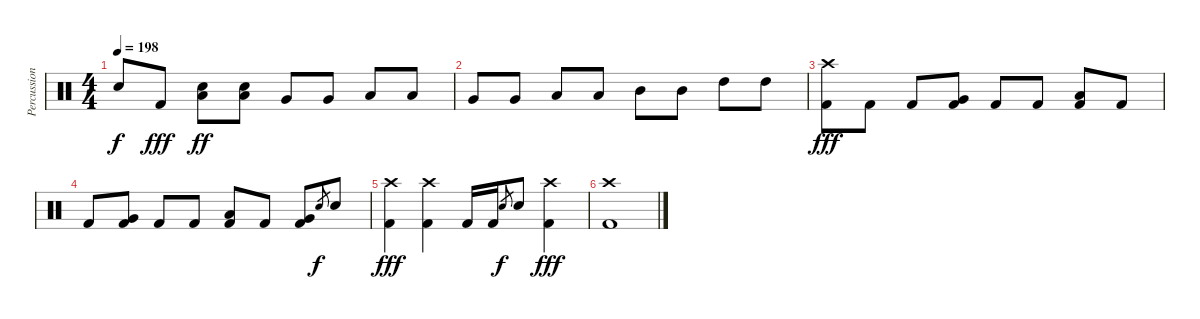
\track ("Percussion" "Percussion") {instrument percussion}
\staff {score}
\articulation defaults
\ts (4 4)
\tempo 198
\clef neutral
\ks c "Snare (hit) 2".8{dy f} "Kick (hit) 2".8{dy fff}
("Low Floor Tom (hit)" "Snare (hit) 2").8{dy ff} ("Low Floor Tom (hit)" "Snare (hit) 2").8 "Very Low Tom (hit)".8 "Very Low Tom (hit)".8 "Low Tom (hit)".8 "Low Tom (hit)".8 |
"Very Low Tom (hit)".8 "Very Low Tom (hit)".8 "Low Tom (hit)".8 "Low Tom (hit)".8 "Mid Tom (hit)".8 "Mid Tom (hit)".8 "High Tom (hit)".8 "High Tom (hit)".8 |
("Crash high (hit)" "Kick (hit) 2").8{dy fff} "Kick (hit) 2".8 "Kick (hit) 2".8 ("Very Low Tom (hit)" "Kick (hit) 2").8 "Kick (hit) 2".8 "Kick (hit) 2".8 ("Low Floor Tom (hit)" "Kick (hit) 2").8 "Kick (hit) 2".8 |
"Kick (hit) 2".8 ("Very Low Tom (hit)" "Kick (hit) 2").8 "Kick (hit) 2".8 "Kick (hit) 2".8 ("Low Floor Tom (hit)" "Kick (hit) 2").8 "Kick (hit) 2".8 ("Very Low Tom (hit)" "Kick (hit) 2").8 "Snare (hit) 2".8{gr dy f} "Snare (hit) 2".8 |
("Crash high (hit)" "Kick (hit) 2").4{dy fff} ("Crash high (hit)" "Kick (hit) 2").4 "Kick (hit) 2".16 "Kick (hit) 2".16 "Snare (hit) 2".8{gr dy f} "Snare (hit) 2".8 ("Crash high (hit)" "Kick (hit) 2").4{dy fff} |
("Crash high (hit)" "Kick (hit) 2").1
